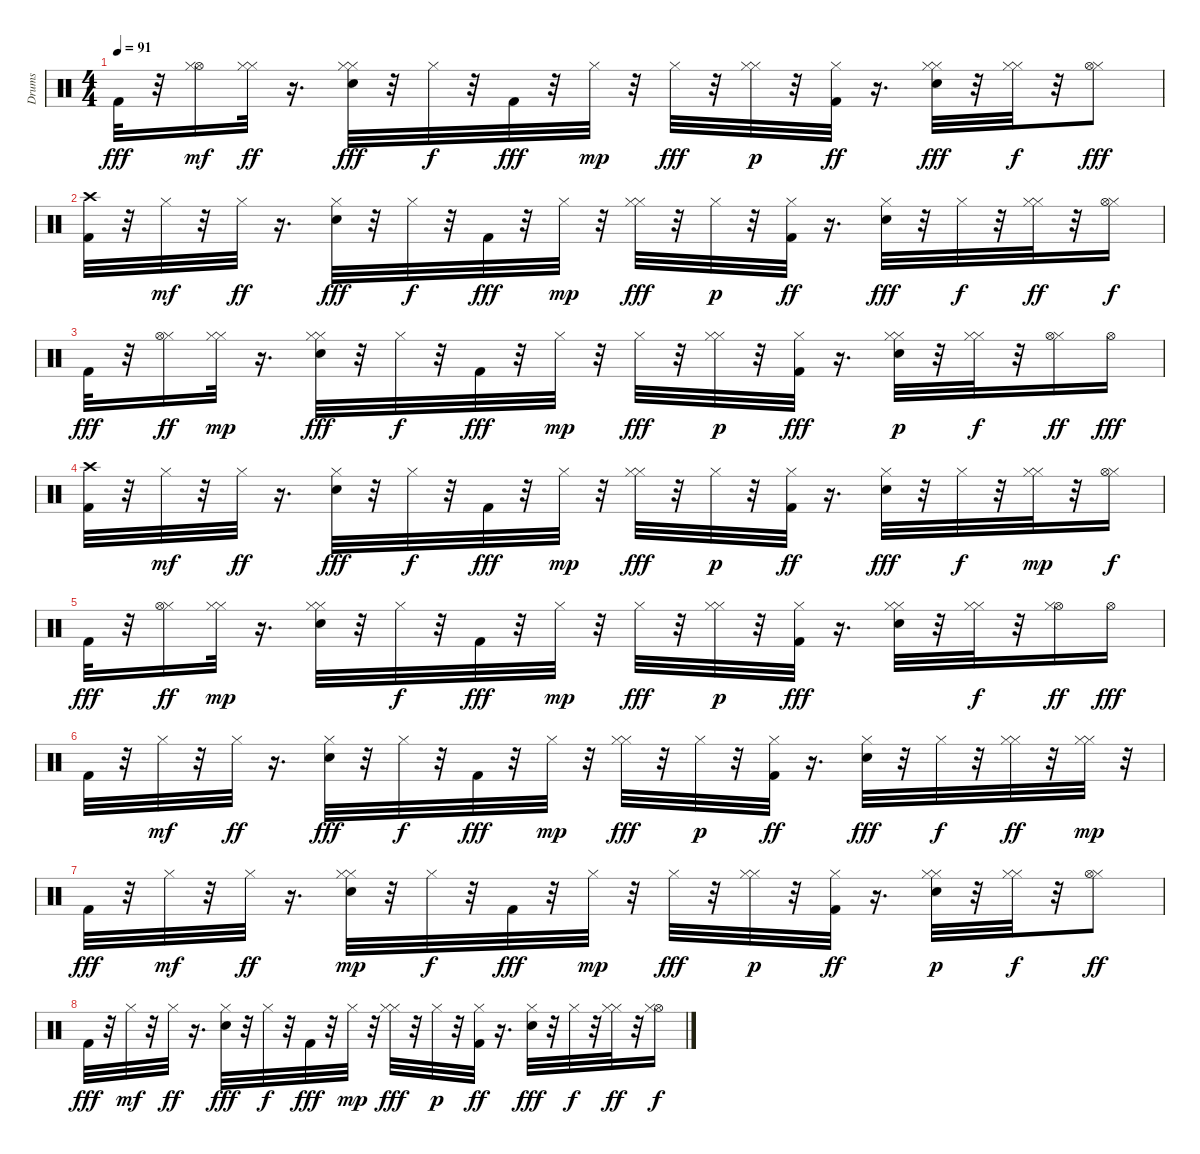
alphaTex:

\track ("Drums" "Drums") {instrument percussion}
\staff {score}
\articulation defaults
\ts (4 4)
\tempo 91
\clef neutral
\ks c "Kick (hit) 2".32{dy fff}
r.32 ("Hi-Hat (open)" "Hi-Hat (closed)").16{dy mf} ("Hi-Hat (closed)" "Hi-Hat (closed)").32{dy ff} r.16{d} ("Hi-Hat (closed)" "Hi-Hat (closed)" "Snare (hit) 2").32{dy fff} r.32 "Hi-Hat (closed)".32{dy f} r.32 "Kick (hit) 2".32{dy fff} r.32 "Hi-Hat (closed)".32{dy mp} r.32 "Hi-Hat (closed)".32{dy fff} r.32 ("Hi-Hat (closed)" "Hi-Hat (closed)").32{dy p} r.32 ("Kick (hit) 2" "Hi-Hat (closed)").32{dy ff} r.16{d} ("Hi-Hat (closed)" "Hi-Hat (closed)" "Snare (hit) 2").32{dy fff} r.32 ("Hi-Hat (closed)" "Hi-Hat (closed)").32{dy f} r.32 ("Hi-Hat (closed)" "Hi-Hat (open)").8{dy fff} |
("Crash high (hit)" "Kick (hit) 2").32 r.32 "Hi-Hat (closed)".32{dy mf} r.32 "Hi-Hat (closed)".32{dy ff} r.16{d} ("Hi-Hat (closed)" "Snare (hit) 2").32{dy fff} r.32 "Hi-Hat (closed)".32{dy f} r.32 "Kick (hit) 2".32{dy fff} r.32 "Hi-Hat (closed)".32{dy mp} r.32 ("Hi-Hat (closed)" "Hi-Hat (closed)").32{dy fff} r.32 "Hi-Hat (closed)".32{dy p} r.32 ("Kick (hit) 2" "Hi-Hat (closed)").32{dy ff} r.16{d} ("Hi-Hat (closed)" "Snare (hit) 2").32{dy fff} r.32 "Hi-Hat (closed)".32{dy f} r.32 ("Hi-Hat (closed)" "Hi-Hat (closed)").32{dy ff} r.32 ("Hi-Hat (closed)" "Hi-Hat (open)").16{dy f} |
"Kick (hit) 2".32{dy fff} r.32 ("Hi-Hat (closed)" "Hi-Hat (open)").16{dy ff} ("Hi-Hat (closed)" "Hi-Hat (closed)").32{dy mp} r.16{d} ("Hi-Hat (closed)" "Hi-Hat (closed)" "Snare (hit) 2").32{dy fff} r.32 "Hi-Hat (closed)".32{dy f} r.32 "Kick (hit) 2".32{dy fff} r.32 "Hi-Hat (closed)".32{dy mp} r.32 "Hi-Hat (closed)".32{dy fff} r.32 ("Hi-Hat (closed)" "Hi-Hat (closed)").32{dy p} r.32 ("Hi-Hat (closed)" "Kick (hit) 2").32{dy fff} r.16{d} ("Snare (hit) 2" "Hi-Hat (closed)" "Hi-Hat (closed)").32{dy p} r.32 ("Hi-Hat (closed)" "Hi-Hat (closed)").32{dy f} r.32 ("Hi-Hat (closed)" "Hi-Hat (open)").16{dy ff} "Hi-Hat (open)".16{dy fff} |
("Kick (hit) 2" "Crash high (hit)").32 r.32 "Hi-Hat (closed)".32{dy mf} r.32 "Hi-Hat (closed)".32{dy ff} r.16{d} ("Hi-Hat (closed)" "Snare (hit) 2").32{dy fff} r.32 "Hi-Hat (closed)".32{dy f} r.32 "Kick (hit) 2".32{dy fff} r.32 "Hi-Hat (closed)".32{dy mp} r.32 ("Hi-Hat (closed)" "Hi-Hat (closed)").32{dy fff} r.32 "Hi-Hat (closed)".32{dy p} r.32 ("Kick (hit) 2" "Hi-Hat (closed)").32{dy ff} r.16{d} ("Snare (hit) 2" "Hi-Hat (closed)").32{dy fff} r.32 "Hi-Hat (closed)".32{dy f} r.32 ("Hi-Hat (closed)" "Hi-Hat (closed)").32{dy mp} r.32 ("Hi-Hat (closed)" "Hi-Hat (open)").16{dy f} |
"Kick (hit) 2".32{dy fff} r.32 ("Hi-Hat (closed)" "Hi-Hat (open)").16{dy ff} ("Hi-Hat (closed)" "Hi-Hat (closed)").32{dy mp} r.16{d} ("Hi-Hat (closed)" "Snare (hit) 2" "Hi-Hat (closed)").32 r.32 "Hi-Hat (closed)".32{dy f} r.32 "Kick (hit) 2".32{dy fff} r.32 "Hi-Hat (closed)".32{dy mp} r.32 "Hi-Hat (closed)".32{dy fff} r.32 ("Hi-Hat (closed)" "Hi-Hat (closed)").32{dy p} r.32 ("Hi-Hat (closed)" "Kick (hit) 2").32{dy fff} r.16{d} ("Hi-Hat (closed)" "Hi-Hat (closed)" "Snare (hit) 2").32 r.32 ("Hi-Hat (closed)" "Hi-Hat (closed)").32{dy f} r.32 ("Hi-Hat (open)" "Hi-Hat (closed)").16{dy ff} "Hi-Hat (open)".16{dy fff} |
"Kick (hit) 2".32 r.32 "Hi-Hat (closed)".32{dy mf} r.32 "Hi-Hat (closed)".32{dy ff} r.16{d} ("Snare (hit) 2" "Hi-Hat (closed)").32{dy fff} r.32 "Hi-Hat (closed)".32{dy f} r.32 "Kick (hit) 2".32{dy fff} r.32 "Hi-Hat (closed)".32{dy mp} r.32 ("Hi-Hat (closed)" "Hi-Hat (closed)").32{dy fff} r.32 "Hi-Hat (closed)".32{dy p} r.32 ("Kick (hit) 2" "Hi-Hat (closed)").32{dy ff} r.16{d} ("Hi-Hat (closed)" "Snare (hit) 2").32{dy fff} r.32 "Hi-Hat (closed)".32{dy f} r.32 ("Hi-Hat (closed)" "Hi-Hat (closed)").32{dy ff} r.32 ("Hi-Hat (closed)" "Hi-Hat (closed)").32{dy mp} r.32 |
"Kick (hit) 2".32{dy fff} r.32 "Hi-Hat (closed)".32{dy mf} r.32 "Hi-Hat (closed)".32{dy ff} r.16{d} ("Hi-Hat (closed)" "Snare (hit) 2" "Hi-Hat (closed)").32{dy mp} r.32 "Hi-Hat (closed)".32{dy f} r.32 "Kick (hit) 2".32{dy fff} r.32 "Hi-Hat (closed)".32{dy mp} r.32 "Hi-Hat (closed)".32{dy fff} r.32 ("Hi-Hat (closed)" "Hi-Hat (closed)").32{dy p} r.32 ("Kick (hit) 2" "Hi-Hat (closed)").32{dy ff} r.16{d} ("Hi-Hat (closed)" "Snare (hit) 2" "Hi-Hat (closed)").32{dy p} r.32 ("Hi-Hat (closed)" "Hi-Hat (closed)").32{dy f} r.32 ("Hi-Hat (closed)" "Hi-Hat (open)").8{dy ff} |
"Kick (hit) 2".32{dy fff} r.32 "Hi-Hat (closed)".32{dy mf} r.32 "Hi-Hat (closed)".32{dy ff} r.16{d} ("Snare (hit) 2" "Hi-Hat (closed)").32{dy fff} r.32 "Hi-Hat (closed)".32{dy f} r.32 "Kick (hit) 2".32{dy fff} r.32 "Hi-Hat (closed)".32{dy mp} r.32 ("Hi-Hat (closed)" "Hi-Hat (closed)").32{dy fff} r.32 "Hi-Hat (closed)".32{dy p} r.32 ("Kick (hit) 2" "Hi-Hat (closed)").32{dy ff} r.16{d} ("Hi-Hat (closed)" "Snare (hit) 2").32{dy fff} r.32 "Hi-Hat (closed)".32{dy f} r.32 ("Hi-Hat (closed)" "Hi-Hat (closed)").32{dy ff} r.32 ("Hi-Hat (open)" "Hi-Hat (closed)").16{dy f}
